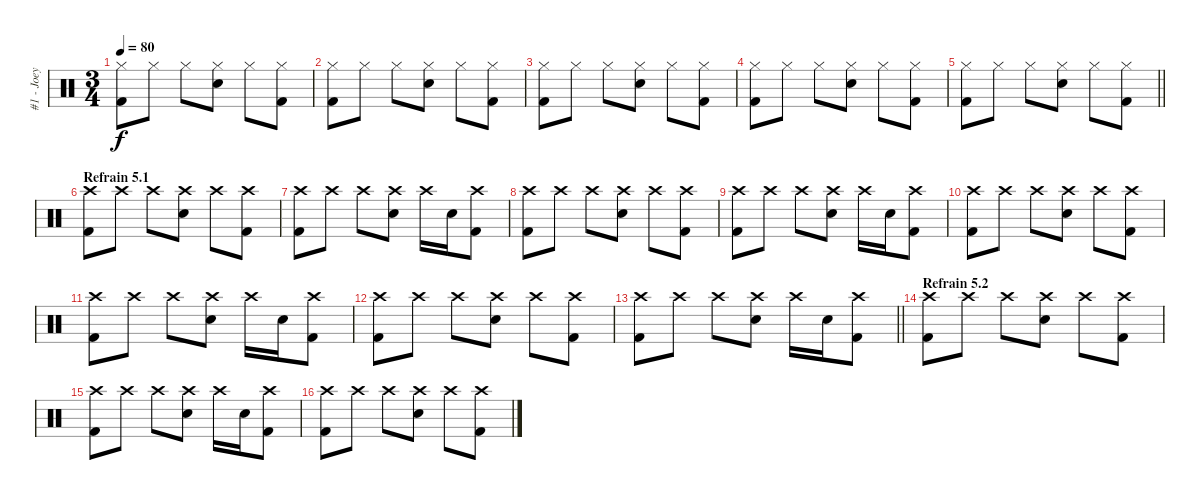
\track ("#1 - Joey Jordison" "#1 - Joey ") {instrument percussion}
\staff {score}
\articulation defaults
\ts (3 4)
\tempo 80
\clef neutral
\ks c
("Hi-Hat (closed)" "Kick (hit) 2").8{dy f} "Hi-Hat (closed)".8 "Hi-Hat (closed)".8 ("Hi-Hat (closed)" "Snare (hit) 2").8 "Hi-Hat (closed)".8 ("Hi-Hat (closed)" "Kick (hit) 2").8 |
("Hi-Hat (closed)" "Kick (hit) 2").8 "Hi-Hat (closed)".8 "Hi-Hat (closed)".8 ("Hi-Hat (closed)" "Snare (hit) 2").8 "Hi-Hat (closed)".8 ("Hi-Hat (closed)" "Kick (hit) 2").8 |
("Hi-Hat (closed)" "Kick (hit) 2").8 "Hi-Hat (closed)".8 "Hi-Hat (closed)".8 ("Hi-Hat (closed)" "Snare (hit) 2").8 "Hi-Hat (closed)".8 ("Hi-Hat (closed)" "Kick (hit) 2").8 |
("Hi-Hat (closed)" "Kick (hit) 2").8 "Hi-Hat (closed)".8 "Hi-Hat (closed)".8 ("Hi-Hat (closed)" "Snare (hit) 2").8 "Hi-Hat (closed)".8 ("Hi-Hat (closed)" "Kick (hit) 2").8 |
\barLineRight lightlight
("Hi-Hat (closed)" "Kick (hit) 2").8 "Hi-Hat (closed)".8 "Hi-Hat (closed)".8 ("Hi-Hat (closed)" "Snare (hit) 2").8 "Hi-Hat (closed)".8 ("Hi-Hat (closed)" "Kick (hit) 2").8 |
\section ("" "Refrain 5.1")
("Crash high (hit)" "Kick (hit) 2").8 "Crash high (hit)".8 "Crash high (hit)".8 ("Crash high (hit)" "Snare (hit) 2").8 "Crash high (hit)".8 ("Crash high (hit)" "Kick (hit) 2").8 |
("Crash high (hit)" "Kick (hit) 2").8 "Crash high (hit)".8 "Crash high (hit)".8 ("Crash high (hit)" "Snare (hit) 2").8 "Crash high (hit)".16 "Snare (hit) 2".16 ("Crash high (hit)" "Kick (hit) 2").8 |
("Crash high (hit)" "Kick (hit) 2").8 "Crash high (hit)".8 "Crash high (hit)".8 ("Crash high (hit)" "Snare (hit) 2").8 "Crash high (hit)".8 ("Crash high (hit)" "Kick (hit) 2").8 |
("Crash high (hit)" "Kick (hit) 2").8 "Crash high (hit)".8 "Crash high (hit)".8 ("Crash high (hit)" "Snare (hit) 2").8 "Crash high (hit)".16 "Snare (hit) 2".16 ("Crash high (hit)" "Kick (hit) 2").8 |
("Crash high (hit)" "Kick (hit) 2").8 "Crash high (hit)".8 "Crash high (hit)".8 ("Crash high (hit)" "Snare (hit) 2").8 "Crash high (hit)".8 ("Crash high (hit)" "Kick (hit) 2").8 |
("Crash high (hit)" "Kick (hit) 2").8 "Crash high (hit)".8 "Crash high (hit)".8 ("Crash high (hit)" "Snare (hit) 2").8 "Crash high (hit)".16 "Snare (hit) 2".16 ("Crash high (hit)" "Kick (hit) 2").8 |
("Crash high (hit)" "Kick (hit) 2").8 "Crash high (hit)".8 "Crash high (hit)".8 ("Crash high (hit)" "Snare (hit) 2").8 "Crash high (hit)".8 ("Crash high (hit)" "Kick (hit) 2").8 |
\barLineRight lightlight
("Crash high (hit)" "Kick (hit) 2").8 "Crash high (hit)".8 "Crash high (hit)".8 ("Crash high (hit)" "Snare (hit) 2").8 "Crash high (hit)".16 "Snare (hit) 2".16 ("Crash high (hit)" "Kick (hit) 2").8 |
\section ("" "Refrain 5.2")
("Crash high (hit)" "Kick (hit) 2").8 "Crash high (hit)".8 "Crash high (hit)".8 ("Crash high (hit)" "Snare (hit) 2").8 "Crash high (hit)".8 ("Crash high (hit)" "Kick (hit) 2").8 |
("Crash high (hit)" "Kick (hit) 2").8 "Crash high (hit)".8 "Crash high (hit)".8 ("Crash high (hit)" "Snare (hit) 2").8 "Crash high (hit)".16 "Snare (hit) 2".16 ("Crash high (hit)" "Kick (hit) 2").8 |
("Crash high (hit)" "Kick (hit) 2").8 "Crash high (hit)".8 "Crash high (hit)".8 ("Crash high (hit)" "Snare (hit) 2").8 "Crash high (hit)".8 ("Crash high (hit)" "Kick (hit) 2").8
